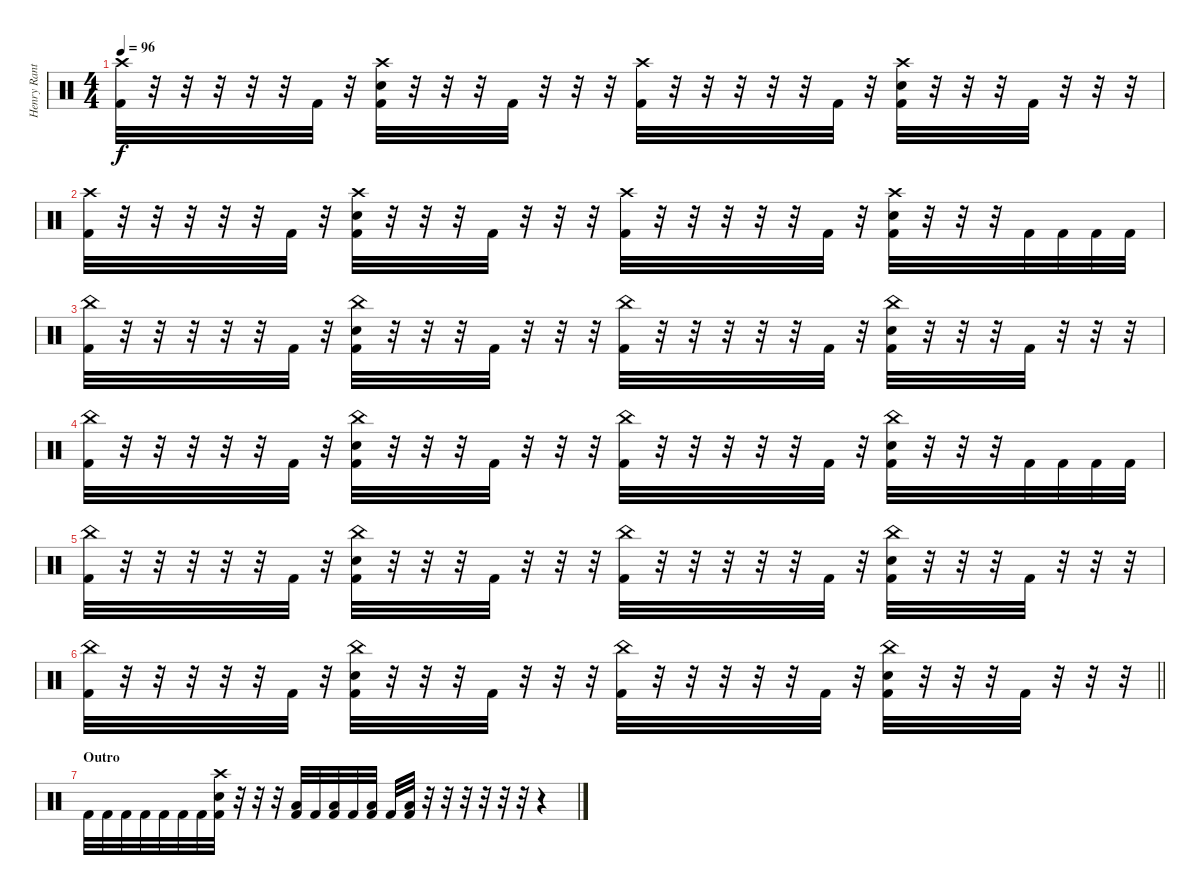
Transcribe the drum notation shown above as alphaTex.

\track ("Henry Ranta (Drumms)" "Henry Rant") {instrument percussion}
\staff {score}
\articulation defaults
\ts (4 4)
\tempo 96
\clef neutral
\ks c
("Crash high (hit)" "Kick (hit) 2").32{dy f} r.32 r.32 r.32 r.32 r.32 "Kick (hit) 2".32 r.32 ("Crash high (hit)" "Snare (hit) 2" "Kick (hit) 2").32 r.32 r.32 r.32 "Kick (hit) 2".32 r.32 r.32 r.32 ("Crash high (hit)" "Kick (hit) 2").32 r.32 r.32 r.32 r.32 r.32 "Kick (hit) 2".32 r.32 ("Crash high (hit)" "Snare (hit) 2" "Kick (hit) 2").32 r.32 r.32 r.32 "Kick (hit) 2".32 r.32 r.32 r.32 |
("Crash high (hit)" "Kick (hit) 2").32 r.32 r.32 r.32 r.32 r.32 "Kick (hit) 2".32 r.32 ("Crash high (hit)" "Snare (hit) 2" "Kick (hit) 2").32 r.32 r.32 r.32 "Kick (hit) 2".32 r.32 r.32 r.32 ("Crash high (hit)" "Kick (hit) 2").32 r.32 r.32 r.32 r.32 r.32 "Kick (hit) 2".32 r.32 ("Crash high (hit)" "Snare (hit) 2" "Kick (hit) 2").32 r.32 r.32 r.32 "Kick (hit) 2".32 "Kick (hit) 2".32 "Kick (hit) 2".32 "Kick (hit) 2".32 |
("China (hit)" "Kick (hit) 2").32 r.32 r.32 r.32 r.32 r.32 "Kick (hit) 2".32 r.32 ("China (hit)" "Snare (hit) 2" "Kick (hit) 2").32 r.32 r.32 r.32 "Kick (hit) 2".32 r.32 r.32 r.32 ("China (hit)" "Kick (hit) 2").32 r.32 r.32 r.32 r.32 r.32 "Kick (hit) 2".32 r.32 ("China (hit)" "Snare (hit) 2" "Kick (hit) 2").32 r.32 r.32 r.32 "Kick (hit) 2".32 r.32 r.32 r.32 |
("China (hit)" "Kick (hit) 2").32 r.32 r.32 r.32 r.32 r.32 "Kick (hit) 2".32 r.32 ("China (hit)" "Snare (hit) 2" "Kick (hit) 2").32 r.32 r.32 r.32 "Kick (hit) 2".32 r.32 r.32 r.32 ("China (hit)" "Kick (hit) 2").32 r.32 r.32 r.32 r.32 r.32 "Kick (hit) 2".32 r.32 ("China (hit)" "Snare (hit) 2" "Kick (hit) 2").32 r.32 r.32 r.32 "Kick (hit) 2".32 "Kick (hit) 2".32 "Kick (hit) 2".32 "Kick (hit) 2".32 |
("China (hit)" "Kick (hit) 2").32 r.32 r.32 r.32 r.32 r.32 "Kick (hit) 2".32 r.32 ("China (hit)" "Snare (hit) 2" "Kick (hit) 2").32 r.32 r.32 r.32 "Kick (hit) 2".32 r.32 r.32 r.32 ("China (hit)" "Kick (hit) 2").32 r.32 r.32 r.32 r.32 r.32 "Kick (hit) 2".32 r.32 ("China (hit)" "Snare (hit) 2" "Kick (hit) 2").32 r.32 r.32 r.32 "Kick (hit) 2".32 r.32 r.32 r.32 |
\barLineRight lightlight
("China (hit)" "Kick (hit) 2").32 r.32 r.32 r.32 r.32 r.32 "Kick (hit) 2".32 r.32 ("China (hit)" "Snare (hit) 2" "Kick (hit) 2").32 r.32 r.32 r.32 "Kick (hit) 2".32 r.32 r.32 r.32 ("China (hit)" "Kick (hit) 2").32 r.32 r.32 r.32 r.32 r.32 "Kick (hit) 2".32 r.32 ("China (hit)" "Snare (hit) 2" "Kick (hit) 2").32 r.32 r.32 r.32 "Kick (hit) 2".32 r.32 r.32 r.32 |
\section ("" "Outro")
"Kick (hit) 2".32 "Kick (hit) 2".32 "Kick (hit) 2".32 "Kick (hit) 2".32 "Kick (hit) 2".32 "Kick (hit) 2".32 "Kick (hit) 2".32 ("Crash high (hit)" "Snare (hit) 2" "Kick (hit) 2").32 r.32 r.32 r.32 ("Low Floor Tom (hit)" "Kick (hit) 2").32 "Kick (hit) 2".32 ("Low Floor Tom (hit)" "Kick (hit) 2").32 "Kick (hit) 2".32 ("Low Floor Tom (hit)" "Kick (hit) 2").32 "Kick (hit) 2".32 ("Low Floor Tom (hit)" "Kick (hit) 2").32 r.32 r.32 r.32 r.32 r.32 r.32 r.4
